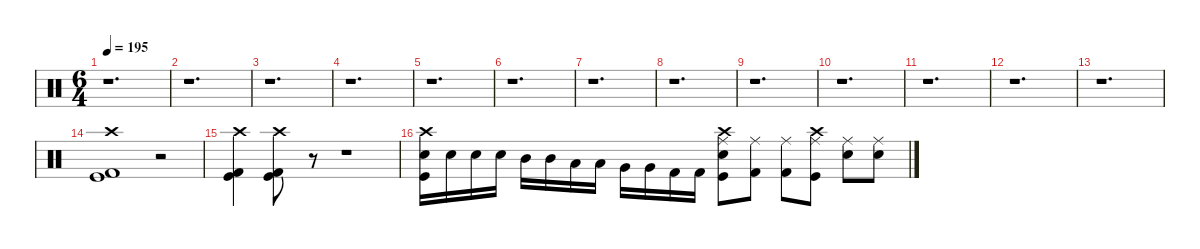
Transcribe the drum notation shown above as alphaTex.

\defaultSystemsLayout 4
\hideDynamics
\bracketExtendMode nobrackets
\singleTrackTrackNamePolicy hidden
\multiTrackTrackNamePolicy hidden
\firstSystemTrackNameMode fullname
\firstSystemTrackNameOrientation horizontal
\otherSystemsTrackNameOrientation horizontal
\track ("Percussion" "drm.") {defaultSystemsLayout 2 instrument percussion}
\staff {score}
\articulation defaults
\ts (6 4)
\tempo 195
\clef neutral
\ks c
r.1{d dy f beam Down} |
r.1{d beam Down} |
r.1{d beam Down} |
r.1{d beam Down} |
r.1{d beam Down} |
r.1{d beam Down} |
r.1{d beam Down} |
r.1{d beam Down} |
r.1{d beam Down} |
r.1{d beam Down} |
r.1{d beam Down} |
r.1{d beam Down} |
r.1{d beam Down} |
("Crash high (hit)" "Kick (hit) 2" "Kick (hit)").1{beam Down} r.2{beam Down} |
("Crash high (hit)" "Kick (hit) 2" "Kick (hit)").4{beam Down} ("Crash high (hit)" "Kick (hit) 2" "Kick (hit)").8{beam Down} r.8{beam Down} r.1{beam Down} |
("Crash high (hit)" "Snare (hit) 2" "Kick (hit)").16{beam Down} "Snare (hit) 2".16{beam Down} "Snare (hit) 2".16{beam Down} "Snare (hit) 2".16{beam Down} "Mid Tom (hit)".16{beam Down} "Mid Tom (hit)".16{beam Down} "Low Tom (hit)".16{beam Down} "Low Tom (hit)".16{beam Down} "Very Low Tom (hit)".16{beam Down} "Very Low Tom (hit)".16{beam Down} "Kick (hit) 2".16{beam Down} "Kick (hit) 2".16{beam Down} ("Crash high (hit)" "Snare (hit) 2" "Ride (middle)" "Kick (hit)").8{beam Down} ("Kick (hit) 2" "Ride (middle)").8{beam Down} ("Kick (hit) 2" "Ride (middle)").8{beam Down} ("Crash high (hit)" "Ride (middle)" "Kick (hit)").8{beam Down} ("Snare (hit) 2" "Ride (middle)").8{beam Down} ("Snare (hit) 2" "Ride (middle)").8{beam Down}
